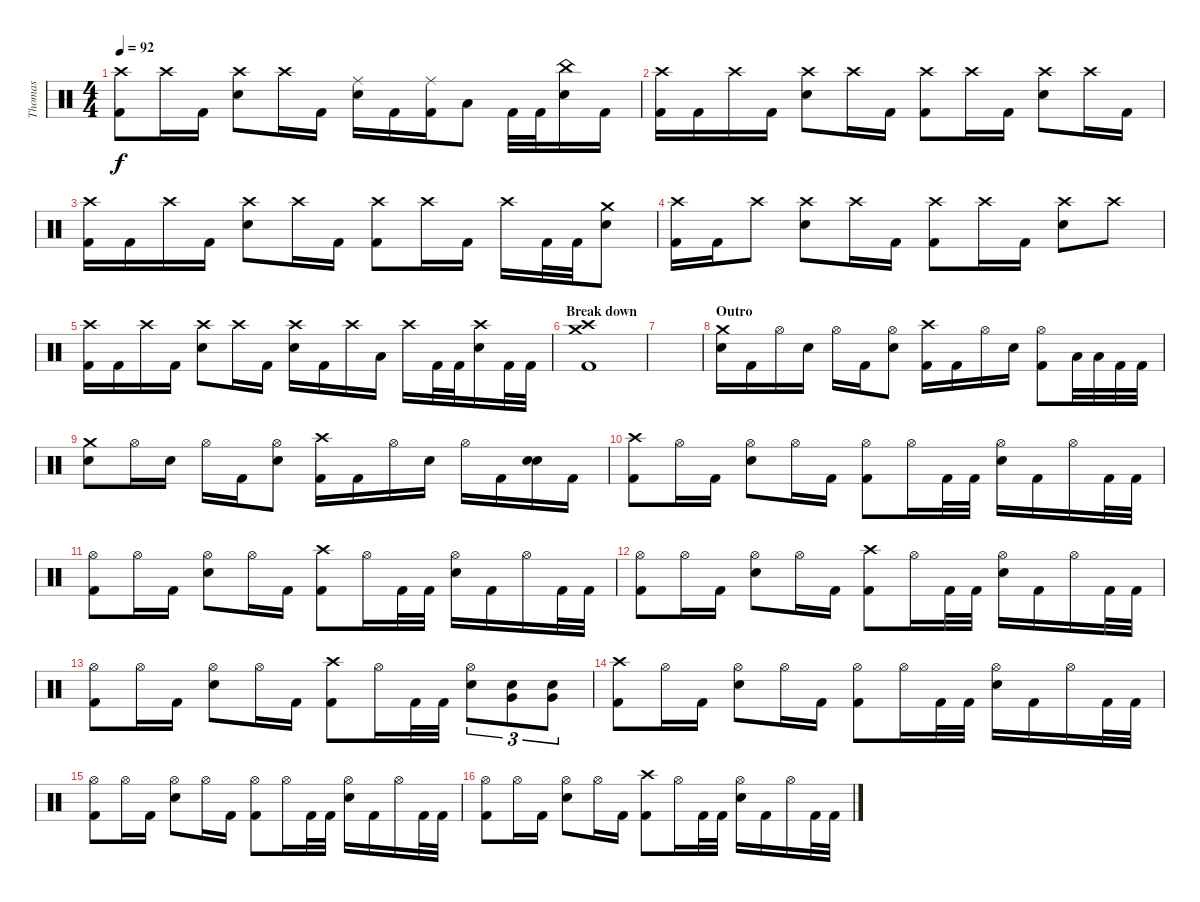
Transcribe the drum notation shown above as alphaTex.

\track ("Thomas" "Thomas") {instrument percussion}
\staff {score}
\articulation defaults
\ts (4 4)
\tempo 92
\clef neutral
\ks c
("Crash high (hit)" "Kick (hit) 2").8{dy f} "Crash high (hit)".16 "Kick (hit) 2".16 ("Crash high (hit)" "Electric Snare (hit)").8 "Crash high (hit)".16 "Kick (hit) 2".16 ("Ride (middle)" "Electric Snare (hit)").16 "Kick (hit) 2".16 ("Ride (middle)" "Kick (hit) 2").16 "Low Tom (hit)".8 "Kick (hit) 2".32 "Kick (hit) 2".32 ("China (hit)" "Electric Snare (hit)").16 "Kick (hit) 2".16 |
("Crash high (hit)" "Kick (hit) 2").16 "Kick (hit) 2".16 "Crash high (hit)".16 "Kick (hit) 2".16 ("Crash high (hit)" "Electric Snare (hit)").8 "Crash high (hit)".16 "Kick (hit) 2".16 ("Crash high (hit)" "Kick (hit) 2").8 "Crash high (hit)".16 "Kick (hit) 2".16 ("Crash high (hit)" "Electric Snare (hit)").8 "Crash high (hit)".16 "Kick (hit) 2".16 |
("Crash high (hit)" "Kick (hit) 2").16 "Kick (hit) 2".16 "Crash high (hit)".16 "Kick (hit) 2".16 ("Crash high (hit)" "Electric Snare (hit)").8 "Crash high (hit)".16 "Kick (hit) 2".16 ("Crash high (hit)" "Kick (hit) 2").8 "Crash high (hit)".16 "Kick (hit) 2".16 "Crash high (hit)".16 "Kick (hit) 2".32 "Kick (hit) 2".32 ("Crash medium (hit)" "Electric Snare (hit)").8 |
("Crash high (hit)" "Kick (hit) 2").16 "Kick (hit) 2".16 "Crash high (hit)".8 ("Crash high (hit)" "Electric Snare (hit)").8 "Crash high (hit)".16 "Kick (hit) 2".16 ("Crash high (hit)" "Kick (hit) 2").8 "Crash high (hit)".16 "Kick (hit) 2".16 ("Crash high (hit)" "Electric Snare (hit)").8 "Crash high (hit)".8 |
("Crash high (hit)" "Kick (hit) 2").16 "Kick (hit) 2".16 "Crash high (hit)".16 "Kick (hit) 2".16 ("Crash high (hit)" "Electric Snare (hit)").8 "Crash high (hit)".16 "Kick (hit) 2".16 ("Crash high (hit)" "Electric Snare (hit)").16 "Kick (hit) 2".16 "Crash high (hit)".16 "Low Tom (hit)".16 "Crash high (hit)".16 "Kick (hit) 2".32 "Kick (hit) 2".32 ("Crash high (hit)" "Electric Snare (hit)").16 "Kick (hit) 2".32 "Kick (hit) 2".32 |
\section ("" "Break down")
("Crash high (hit)" "Crash medium (hit)" "Kick (hit) 2").1 |
|
\section ("" "Outro")
("Crash medium (hit)" "Electric Snare (hit)").16 "Kick (hit) 2".16 "Hi-Hat (open)".16 "Electric Snare (hit)".16 "Hi-Hat (open)".16 "Kick (hit) 2".16 ("Hi-Hat (open)" "Electric Snare (hit)").8 ("Crash high (hit)" "Kick (hit) 2").16 "Kick (hit) 2".16 "Hi-Hat (open)".16 "Electric Snare (hit)".16 ("Hi-Hat (open)" "Kick (hit) 2").8 "Low Tom (hit)".32 "Low Tom (hit)".32 "Kick (hit) 2".32 "Kick (hit) 2".32 |
("Crash medium (hit)" "Electric Snare (hit)").8 "Hi-Hat (open)".16 "Electric Snare (hit)".16 "Hi-Hat (open)".16 "Kick (hit) 2".16 ("Hi-Hat (open)" "Electric Snare (hit)").8 ("Crash high (hit)" "Kick (hit) 2").16 "Kick (hit) 2".16 "Hi-Hat (open)".16 "Electric Snare (hit)".16 "Hi-Hat (open)".16 "Kick (hit) 2".16 ("Electric Snare (hit)" "Electric Snare (hit)").16{bd 120} "Kick (hit) 2".16 |
("Crash high (hit)" "Kick (hit) 2").8 "Hi-Hat (open)".16 "Kick (hit) 2".16 ("Hi-Hat (open)" "Electric Snare (hit)").8 "Hi-Hat (open)".16 "Kick (hit) 2".16 ("Hi-Hat (open)" "Kick (hit) 2").8 "Hi-Hat (open)".16 "Kick (hit) 2".32 "Kick (hit) 2".32 ("Hi-Hat (open)" "Electric Snare (hit)").16 "Kick (hit) 2".16 "Hi-Hat (open)".16 "Kick (hit) 2".32 "Kick (hit) 2".32 |
("Hi-Hat (open)" "Kick (hit) 2").8 "Hi-Hat (open)".16 "Kick (hit) 2".16 ("Hi-Hat (open)" "Electric Snare (hit)").8 "Hi-Hat (open)".16 "Kick (hit) 2".16 ("Crash high (hit)" "Kick (hit) 2").8 "Hi-Hat (open)".16 "Kick (hit) 2".32 "Kick (hit) 2".32 ("Hi-Hat (open)" "Electric Snare (hit)").16 "Kick (hit) 2".16 "Hi-Hat (open)".16 "Kick (hit) 2".32 "Kick (hit) 2".32 |
("Hi-Hat (open)" "Kick (hit) 2").8 "Hi-Hat (open)".16 "Kick (hit) 2".16 ("Hi-Hat (open)" "Electric Snare (hit)").8 "Hi-Hat (open)".16 "Kick (hit) 2".16 ("Crash high (hit)" "Kick (hit) 2").8 "Hi-Hat (open)".16 "Kick (hit) 2".32 "Kick (hit) 2".32 ("Hi-Hat (open)" "Electric Snare (hit)").16 "Kick (hit) 2".16 "Hi-Hat (open)".16 "Kick (hit) 2".32 "Kick (hit) 2".32 |
("Hi-Hat (open)" "Kick (hit) 2").8 "Hi-Hat (open)".16 "Kick (hit) 2".16 ("Hi-Hat (open)" "Electric Snare (hit)").8 "Hi-Hat (open)".16 "Kick (hit) 2".16 ("Crash high (hit)" "Kick (hit) 2").8 "Hi-Hat (open)".16 "Kick (hit) 2".32 "Kick (hit) 2".32 ("Hi-Hat (open)" "Electric Snare (hit)").8{tu (3 2)} ("Very Low Tom (hit)" "Electric Snare (hit)").8{tu (3 2)} ("Very Low Tom (hit)" "Electric Snare (hit)").8{tu (3 2)} |
("Crash high (hit)" "Kick (hit) 2").8 "Hi-Hat (open)".16 "Kick (hit) 2".16 ("Hi-Hat (open)" "Electric Snare (hit)").8 "Hi-Hat (open)".16 "Kick (hit) 2".16 ("Hi-Hat (open)" "Kick (hit) 2").8 "Hi-Hat (open)".16 "Kick (hit) 2".32 "Kick (hit) 2".32 ("Hi-Hat (open)" "Electric Snare (hit)").16 "Kick (hit) 2".16 "Hi-Hat (open)".16 "Kick (hit) 2".32 "Kick (hit) 2".32 |
("Hi-Hat (open)" "Kick (hit) 2").8 "Hi-Hat (open)".16 "Kick (hit) 2".16 ("Hi-Hat (open)" "Electric Snare (hit)").8 "Hi-Hat (open)".16 "Kick (hit) 2".16 ("Hi-Hat (open)" "Kick (hit) 2").8 "Hi-Hat (open)".16 "Kick (hit) 2".32 "Kick (hit) 2".32 ("Hi-Hat (open)" "Electric Snare (hit)").16 "Kick (hit) 2".16 "Hi-Hat (open)".16 "Kick (hit) 2".32 "Kick (hit) 2".32 |
("Hi-Hat (open)" "Kick (hit) 2").8 "Hi-Hat (open)".16 "Kick (hit) 2".16 ("Hi-Hat (open)" "Electric Snare (hit)").8 "Hi-Hat (open)".16 "Kick (hit) 2".16 ("Crash high (hit)" "Kick (hit) 2").8 "Hi-Hat (open)".16 "Kick (hit) 2".32 "Kick (hit) 2".32 ("Hi-Hat (open)" "Electric Snare (hit)").16 "Kick (hit) 2".16 "Hi-Hat (open)".16 "Kick (hit) 2".32 "Kick (hit) 2".32
